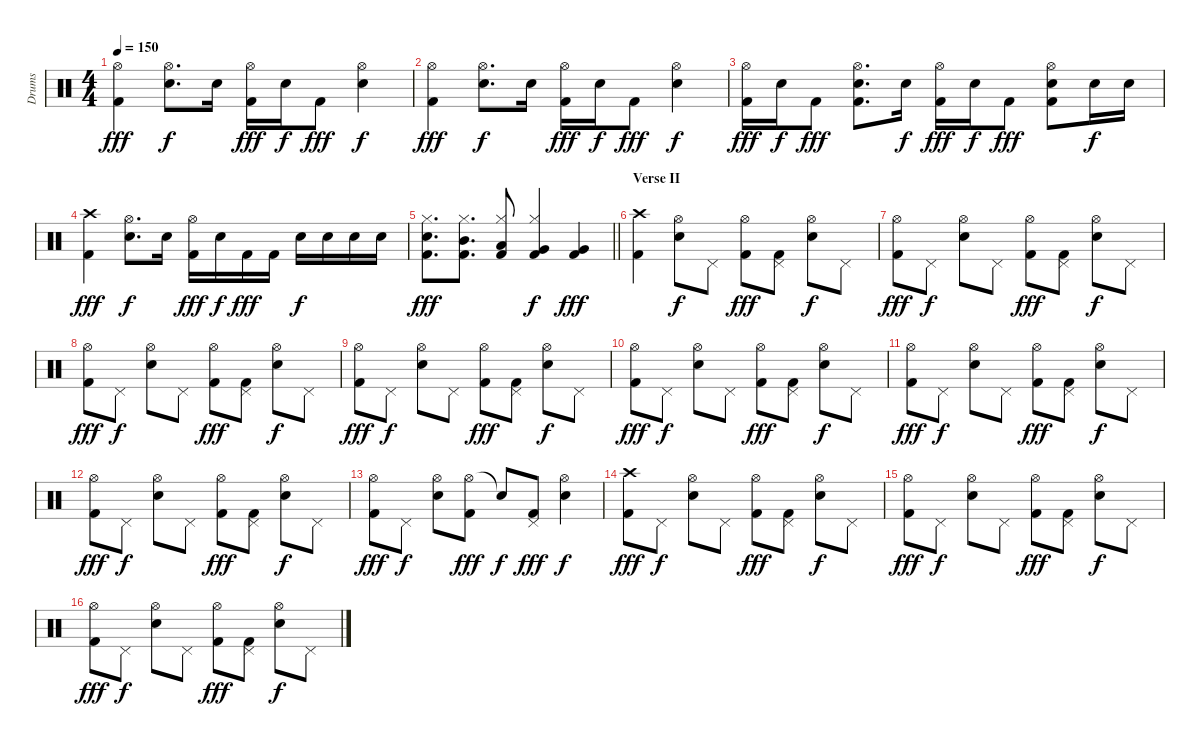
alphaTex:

\track ("Drums" "Drums") {instrument percussion}
\staff {score}
\articulation defaults
\ts (4 4)
\tempo 150
\clef neutral
\ks c
("Hi-Hat (open)" "Kick (hit) 2").4{dy fff} ("Hi-Hat (open)" "Snare (hit) 2").8{d dy f} "Snare (hit) 2".16 ("Hi-Hat (open)" "Kick (hit) 2").16{dy fff} "Snare (hit) 2".16{dy f} "Kick (hit) 2".8{dy fff} ("Hi-Hat (open)" "Snare (hit) 2").4{dy f} |
("Hi-Hat (open)" "Kick (hit) 2").4{dy fff} ("Hi-Hat (open)" "Snare (hit) 2").8{d dy f} "Snare (hit) 2".16 ("Hi-Hat (open)" "Kick (hit) 2").16{dy fff} "Snare (hit) 2".16{dy f} "Kick (hit) 2".8{dy fff} ("Hi-Hat (open)" "Snare (hit) 2").4{dy f} |
("Hi-Hat (open)" "Kick (hit) 2").16{dy fff} "Snare (hit) 2".16{dy f} "Kick (hit) 2".8{dy fff} ("Hi-Hat (open)" "Snare (hit) 2" "Kick (hit) 2").8{d} "Snare (hit) 2".16{dy f} ("Hi-Hat (open)" "Kick (hit) 2").16{dy fff} "Snare (hit) 2".16{dy f} "Kick (hit) 2".8{dy fff} ("Hi-Hat (open)" "Snare (hit) 2" "Kick (hit) 2").8 "Snare (hit) 2".16{dy f} "Snare (hit) 2".16 |
("Crash high (hit)" "Kick (hit) 2").4{dy fff} ("Hi-Hat (open)" "Snare (hit) 2").8{d dy f} "Snare (hit) 2".16 ("Hi-Hat (open)" "Kick (hit) 2").16{dy fff} "Snare (hit) 2".16{dy f} "Kick (hit) 2".16{dy fff} "Kick (hit) 2".16 "Snare (hit) 2".16{dy f} "Snare (hit) 2".16 "Snare (hit) 2".16 "Snare (hit) 2".16 |
\barLineRight lightlight
("Hi-Hat (closed)" "Snare (hit) 2" "Kick (hit) 2").8{d dy fff} ("Hi-Hat (closed)" "Mid Tom (hit)" "Kick (hit) 2").8{d} ("Hi-Hat (closed)" "Low Tom (hit)" "Kick (hit) 2").8 ("Hi-Hat (closed)" "Very Low Tom (hit)" "Kick (hit) 2").4{dy f} ("Very Low Tom (hit)" "Kick (hit) 2").4{dy fff} |
\section ("" "Verse II")
("Crash high (hit)" "Kick (hit) 2").4 ("Hi-Hat (open)" "Snare (hit) 2").8{dy f} "Pedal Hi-Hat (hit)".8 ("Hi-Hat (open)" "Kick (hit) 2").8{dy fff} ("Pedal Hi-Hat (hit)" "Kick (hit) 2").8 ("Hi-Hat (open)" "Snare (hit) 2").8{dy f} "Pedal Hi-Hat (hit)".8 |
("Hi-Hat (open)" "Kick (hit) 2").8{dy fff} "Pedal Hi-Hat (hit)".8{dy f} ("Hi-Hat (open)" "Snare (hit) 2").8 "Pedal Hi-Hat (hit)".8 ("Hi-Hat (open)" "Kick (hit) 2").8{dy fff} ("Pedal Hi-Hat (hit)" "Kick (hit) 2").8 ("Hi-Hat (open)" "Snare (hit) 2").8{dy f} "Pedal Hi-Hat (hit)".8 |
("Hi-Hat (open)" "Kick (hit) 2").8{dy fff} "Pedal Hi-Hat (hit)".8{dy f} ("Hi-Hat (open)" "Snare (hit) 2").8 "Pedal Hi-Hat (hit)".8 ("Hi-Hat (open)" "Kick (hit) 2").8{dy fff} ("Pedal Hi-Hat (hit)" "Kick (hit) 2").8 ("Hi-Hat (open)" "Snare (hit) 2").8{dy f} "Pedal Hi-Hat (hit)".8 |
("Hi-Hat (open)" "Kick (hit) 2").8{dy fff} "Pedal Hi-Hat (hit)".8{dy f} ("Hi-Hat (open)" "Snare (hit) 2").8 "Pedal Hi-Hat (hit)".8 ("Hi-Hat (open)" "Kick (hit) 2").8{dy fff} ("Pedal Hi-Hat (hit)" "Kick (hit) 2").8 ("Hi-Hat (open)" "Snare (hit) 2").8{dy f} "Pedal Hi-Hat (hit)".8 |
("Hi-Hat (open)" "Kick (hit) 2").8{dy fff} "Pedal Hi-Hat (hit)".8{dy f} ("Hi-Hat (open)" "Snare (hit) 2").8 "Pedal Hi-Hat (hit)".8 ("Hi-Hat (open)" "Kick (hit) 2").8{dy fff} ("Pedal Hi-Hat (hit)" "Kick (hit) 2").8 ("Hi-Hat (open)" "Snare (hit) 2").8{dy f} "Pedal Hi-Hat (hit)".8 |
("Hi-Hat (open)" "Kick (hit) 2").8{dy fff} "Pedal Hi-Hat (hit)".8{dy f} ("Hi-Hat (open)" "Snare (hit) 2").8 "Pedal Hi-Hat (hit)".8 ("Hi-Hat (open)" "Kick (hit) 2").8{dy fff} ("Pedal Hi-Hat (hit)" "Kick (hit) 2").8 ("Hi-Hat (open)" "Snare (hit) 2").8{dy f} "Pedal Hi-Hat (hit)".8 |
("Hi-Hat (open)" "Kick (hit) 2").8{dy fff} "Pedal Hi-Hat (hit)".8{dy f} ("Hi-Hat (open)" "Snare (hit) 2").8 "Pedal Hi-Hat (hit)".8 ("Hi-Hat (open)" "Kick (hit) 2").8{dy fff} ("Pedal Hi-Hat (hit)" "Kick (hit) 2").8 ("Hi-Hat (open)" "Snare (hit) 2").8{dy f} "Pedal Hi-Hat (hit)".8 |
("Hi-Hat (open)" "Kick (hit) 2").8{dy fff} "Pedal Hi-Hat (hit)".8{dy f} ("Hi-Hat (open)" "Snare (hit) 2").8 ("Hi-Hat (open)" "Kick (hit) 2").8{dy fff} "Snare (hit)"{t}.8{dy f} ("Pedal Hi-Hat (hit)" "Kick (hit) 2").8{dy fff} ("Hi-Hat (open)" "Snare (hit) 2").4{dy f} |
("Crash high (hit)" "Kick (hit) 2").8{dy fff} "Pedal Hi-Hat (hit)".8{dy f} ("Hi-Hat (open)" "Snare (hit) 2").8 "Pedal Hi-Hat (hit)".8 ("Hi-Hat (open)" "Kick (hit) 2").8{dy fff} ("Pedal Hi-Hat (hit)" "Kick (hit) 2").8 ("Hi-Hat (open)" "Snare (hit) 2").8{dy f} "Pedal Hi-Hat (hit)".8 |
("Hi-Hat (open)" "Kick (hit) 2").8{dy fff} "Pedal Hi-Hat (hit)".8{dy f} ("Hi-Hat (open)" "Snare (hit) 2").8 "Pedal Hi-Hat (hit)".8 ("Hi-Hat (open)" "Kick (hit) 2").8{dy fff} ("Pedal Hi-Hat (hit)" "Kick (hit) 2").8 ("Hi-Hat (open)" "Snare (hit) 2").8{dy f} "Pedal Hi-Hat (hit)".8 |
("Hi-Hat (open)" "Kick (hit) 2").8{dy fff} "Pedal Hi-Hat (hit)".8{dy f} ("Hi-Hat (open)" "Snare (hit) 2").8 "Pedal Hi-Hat (hit)".8 ("Hi-Hat (open)" "Kick (hit) 2").8{dy fff} ("Pedal Hi-Hat (hit)" "Kick (hit) 2").8 ("Hi-Hat (open)" "Snare (hit) 2").8{dy f} "Pedal Hi-Hat (hit)".8
